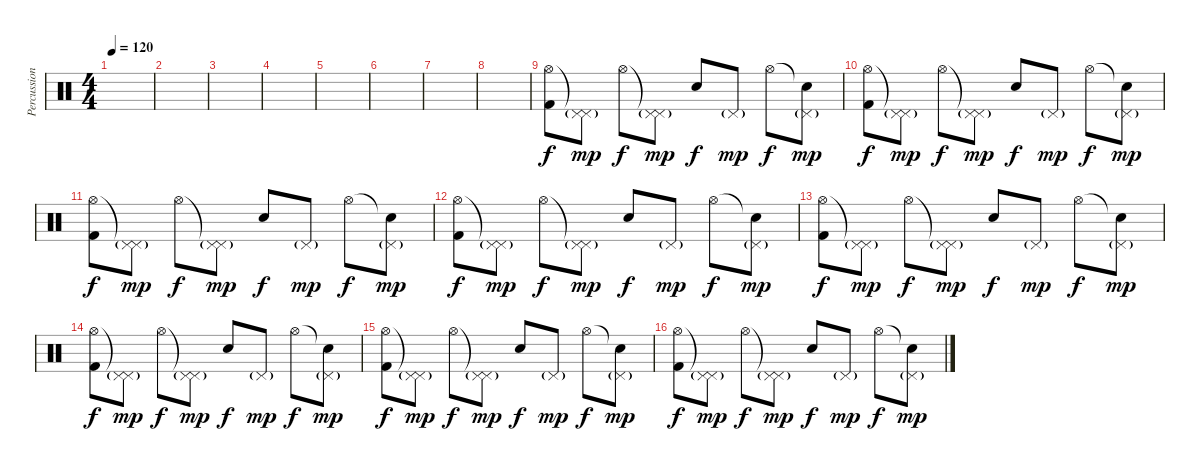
\track ("Percussion" "Percussion") {instrument percussion}
\staff {score}
\articulation defaults
\ts (4 4)
\tempo 120
\clef neutral
\ks c
|
|
|
|
|
|
|
|
("Hi-Hat (open)" "Kick (hit) 2").8 ("Pedal Hi-Hat (hit)"{t} "Pedal Hi-Hat (hit)"{g}).8{dy mp} "Hi-Hat (open)".8{dy f} ("Pedal Hi-Hat (hit)"{t} "Pedal Hi-Hat (hit)"{g}).8{dy mp} "Snare (hit) 2".8{dy f} "Pedal Hi-Hat (hit)"{g}.8{dy mp} "Hi-Hat (open)".8{dy f} ("Snare (hit)"{t} "Pedal Hi-Hat (hit)"{g}).8{dy mp} |
("Hi-Hat (open)" "Kick (hit) 2").8{dy f} ("Pedal Hi-Hat (hit)"{t} "Pedal Hi-Hat (hit)"{g}).8{dy mp} "Hi-Hat (open)".8{dy f} ("Pedal Hi-Hat (hit)"{t} "Pedal Hi-Hat (hit)"{g}).8{dy mp} "Snare (hit) 2".8{dy f} "Pedal Hi-Hat (hit)"{g}.8{dy mp} "Hi-Hat (open)".8{dy f} ("Snare (hit)"{t} "Pedal Hi-Hat (hit)"{g}).8{dy mp} |
("Hi-Hat (open)" "Kick (hit) 2").8{dy f} ("Pedal Hi-Hat (hit)"{t} "Pedal Hi-Hat (hit)"{g}).8{dy mp} "Hi-Hat (open)".8{dy f} ("Pedal Hi-Hat (hit)"{t} "Pedal Hi-Hat (hit)"{g}).8{dy mp} "Snare (hit) 2".8{dy f} "Pedal Hi-Hat (hit)"{g}.8{dy mp} "Hi-Hat (open)".8{dy f} ("Snare (hit)"{t} "Pedal Hi-Hat (hit)"{g}).8{dy mp} |
("Hi-Hat (open)" "Kick (hit) 2").8{dy f} ("Pedal Hi-Hat (hit)"{t} "Pedal Hi-Hat (hit)"{g}).8{dy mp} "Hi-Hat (open)".8{dy f} ("Pedal Hi-Hat (hit)"{t} "Pedal Hi-Hat (hit)"{g}).8{dy mp} "Snare (hit) 2".8{dy f} "Pedal Hi-Hat (hit)"{g}.8{dy mp} "Hi-Hat (open)".8{dy f} ("Snare (hit)"{t} "Pedal Hi-Hat (hit)"{g}).8{dy mp} |
("Hi-Hat (open)" "Kick (hit) 2").8{dy f} ("Pedal Hi-Hat (hit)"{t} "Pedal Hi-Hat (hit)"{g}).8{dy mp} "Hi-Hat (open)".8{dy f} ("Pedal Hi-Hat (hit)"{t} "Pedal Hi-Hat (hit)"{g}).8{dy mp} "Snare (hit) 2".8{dy f} "Pedal Hi-Hat (hit)"{g}.8{dy mp} "Hi-Hat (open)".8{dy f} ("Snare (hit)"{t} "Pedal Hi-Hat (hit)"{g}).8{dy mp} |
("Hi-Hat (open)" "Kick (hit) 2").8{dy f} ("Pedal Hi-Hat (hit)"{t} "Pedal Hi-Hat (hit)"{g}).8{dy mp} "Hi-Hat (open)".8{dy f} ("Pedal Hi-Hat (hit)"{t} "Pedal Hi-Hat (hit)"{g}).8{dy mp} "Snare (hit) 2".8{dy f} "Pedal Hi-Hat (hit)"{g}.8{dy mp} "Hi-Hat (open)".8{dy f} ("Snare (hit)"{t} "Pedal Hi-Hat (hit)"{g}).8{dy mp} |
("Hi-Hat (open)" "Kick (hit) 2").8{dy f} ("Pedal Hi-Hat (hit)"{t} "Pedal Hi-Hat (hit)"{g}).8{dy mp} "Hi-Hat (open)".8{dy f} ("Pedal Hi-Hat (hit)"{t} "Pedal Hi-Hat (hit)"{g}).8{dy mp} "Snare (hit) 2".8{dy f} "Pedal Hi-Hat (hit)"{g}.8{dy mp} "Hi-Hat (open)".8{dy f} ("Snare (hit)"{t} "Pedal Hi-Hat (hit)"{g}).8{dy mp} |
("Hi-Hat (open)" "Kick (hit) 2").8{dy f} ("Pedal Hi-Hat (hit)"{t} "Pedal Hi-Hat (hit)"{g}).8{dy mp} "Hi-Hat (open)".8{dy f} ("Pedal Hi-Hat (hit)"{t} "Pedal Hi-Hat (hit)"{g}).8{dy mp} "Snare (hit) 2".8{dy f} "Pedal Hi-Hat (hit)"{g}.8{dy mp} "Hi-Hat (open)".8{dy f} ("Snare (hit)"{t} "Pedal Hi-Hat (hit)"{g}).8{dy mp}
